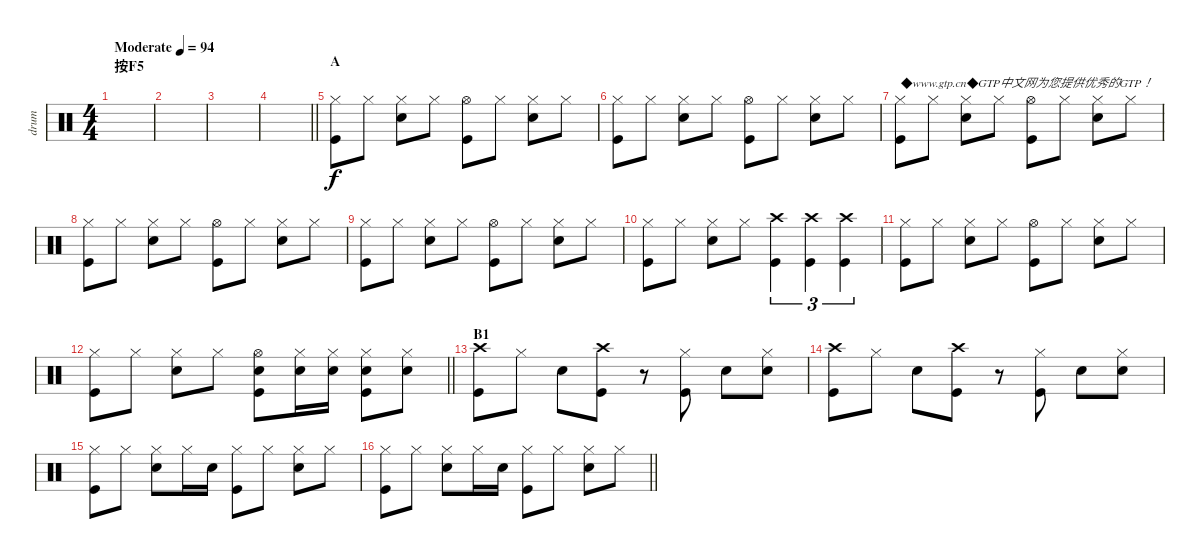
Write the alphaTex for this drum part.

\track ("drum" "drum") {instrument percussion}
\staff {score}
\articulation defaults
\ts (4 4)
\section ("" "按F5")
\tempo (94 "Moderate")
\clef neutral
\ks c
|
|
|
\barLineRight lightlight
|
\section ("" "A")
("Hi-Hat (closed)" "Kick (hit)").8 "Hi-Hat (closed)".8 ("Hi-Hat (closed)" "Snare (hit) 2").8 "Hi-Hat (closed)".8 ("Hi-Hat (open)" "Kick (hit)").8 "Hi-Hat (closed)".8 ("Hi-Hat (closed)" "Snare (hit) 2").8 "Hi-Hat (closed)".8 |
("Hi-Hat (closed)" "Kick (hit)").8 "Hi-Hat (closed)".8 ("Hi-Hat (closed)" "Snare (hit) 2").8 "Hi-Hat (closed)".8 ("Hi-Hat (open)" "Kick (hit)").8 "Hi-Hat (closed)".8 ("Hi-Hat (closed)" "Snare (hit) 2").8 "Hi-Hat (closed)".8 |
("Hi-Hat (closed)" "Kick (hit)").8{txt "◆www.gtp.cn◆GTP中文网为您提供优秀的GTP！"} "Hi-Hat (closed)".8 ("Hi-Hat (closed)" "Snare (hit) 2").8 "Hi-Hat (closed)".8 ("Hi-Hat (open)" "Kick (hit)").8 "Hi-Hat (closed)".8 ("Hi-Hat (closed)" "Snare (hit) 2").8 "Hi-Hat (closed)".8 |
("Hi-Hat (closed)" "Kick (hit)").8 "Hi-Hat (closed)".8 ("Hi-Hat (closed)" "Snare (hit) 2").8 "Hi-Hat (closed)".8 ("Hi-Hat (open)" "Kick (hit)").8 "Hi-Hat (closed)".8 ("Hi-Hat (closed)" "Snare (hit) 2").8 "Hi-Hat (closed)".8 |
("Hi-Hat (closed)" "Kick (hit)").8 "Hi-Hat (closed)".8 ("Hi-Hat (closed)" "Snare (hit) 2").8 "Hi-Hat (closed)".8 ("Hi-Hat (open)" "Kick (hit)").8 "Hi-Hat (closed)".8 ("Hi-Hat (closed)" "Snare (hit) 2").8 "Hi-Hat (closed)".8 |
("Hi-Hat (closed)" "Kick (hit)").8 "Hi-Hat (closed)".8 ("Hi-Hat (closed)" "Snare (hit) 2").8 "Hi-Hat (closed)".8 ("Crash high (hit)" "Kick (hit)").4{tu (3 2)} ("Crash high (hit)" "Kick (hit)").4{tu (3 2)} ("Crash high (hit)" "Kick (hit)").4{tu (3 2)} |
("Hi-Hat (closed)" "Kick (hit)").8 "Hi-Hat (closed)".8 ("Hi-Hat (closed)" "Snare (hit) 2").8 "Hi-Hat (closed)".8 ("Hi-Hat (open)" "Kick (hit)").8 "Hi-Hat (closed)".8 ("Hi-Hat (closed)" "Snare (hit) 2").8 "Hi-Hat (closed)".8 |
\barLineRight lightlight
("Hi-Hat (closed)" "Kick (hit)").8 "Hi-Hat (closed)".8 ("Hi-Hat (closed)" "Snare (hit) 2").8 "Hi-Hat (closed)".8 ("Hi-Hat (open)" "Snare (hit) 2" "Kick (hit)").8 ("Hi-Hat (closed)" "Snare (hit) 2").16 ("Hi-Hat (closed)" "Snare (hit) 2").16 ("Hi-Hat (closed)" "Snare (hit) 2" "Kick (hit)").8 ("Hi-Hat (closed)" "Snare (hit) 2").8 |
\section ("" "B1")
("Crash high (hit)" "Kick (hit)").8 "Hi-Hat (closed)".8 "Snare (hit) 2".8 ("Crash high (hit)" "Kick (hit)").8 r.8 ("Hi-Hat (closed)" "Kick (hit)").8 "Snare (hit) 2".8 ("Hi-Hat (closed)" "Snare (hit) 2").8 |
("Crash high (hit)" "Kick (hit)").8 "Hi-Hat (closed)".8 "Snare (hit) 2".8 ("Crash high (hit)" "Kick (hit)").8 r.8 ("Hi-Hat (closed)" "Kick (hit)").8 "Snare (hit) 2".8 ("Hi-Hat (closed)" "Snare (hit) 2").8 |
("Hi-Hat (closed)" "Kick (hit)").8 "Hi-Hat (closed)".8 ("Hi-Hat (closed)" "Snare (hit) 2").8 "Hi-Hat (closed)".16 "Snare (hit) 2".16 ("Hi-Hat (closed)" "Kick (hit)").8 "Hi-Hat (closed)".8 ("Hi-Hat (closed)" "Snare (hit) 2").8 "Hi-Hat (closed)".8 |
\barLineRight lightlight
("Hi-Hat (closed)" "Kick (hit)").8 "Hi-Hat (closed)".8 ("Hi-Hat (closed)" "Snare (hit) 2").8 "Hi-Hat (closed)".16 "Snare (hit) 2".16 ("Hi-Hat (closed)" "Kick (hit)").8 "Hi-Hat (closed)".8 ("Hi-Hat (closed)" "Snare (hit) 2").8 "Hi-Hat (closed)".8
